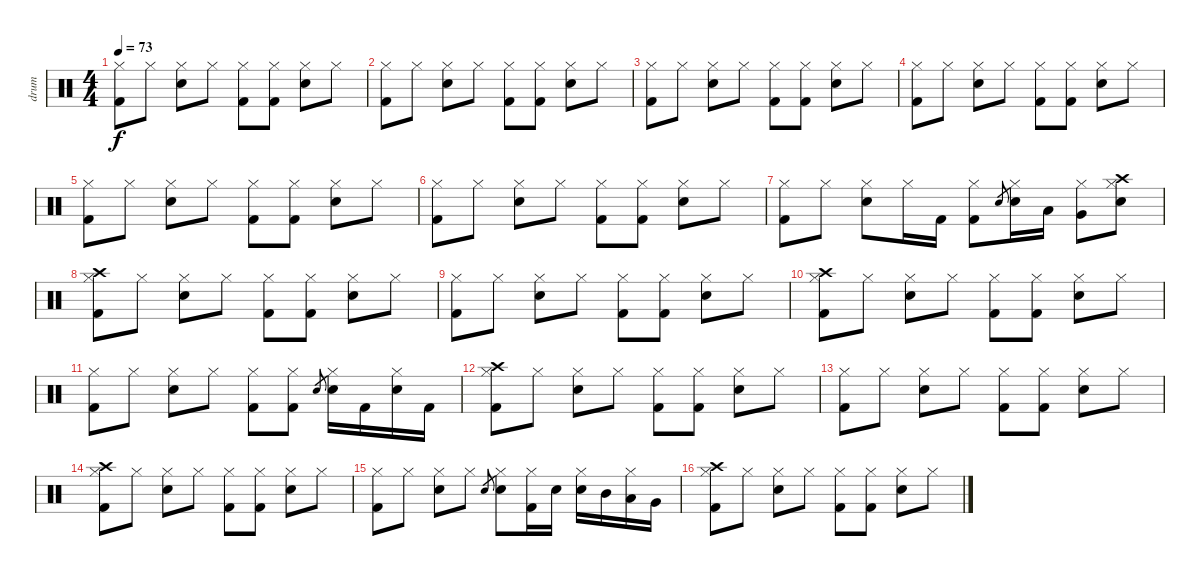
\track ("drum" "drum") {instrument percussion}
\staff {score}
\articulation defaults
\ts (4 4)
\tempo 73
\clef neutral
\ks c
("Hi-Hat (closed)" "Kick (hit) 2").8{dy f} "Hi-Hat (closed)".8 ("Hi-Hat (closed)" "Electric Snare (hit)").8 "Hi-Hat (closed)".8 ("Hi-Hat (closed)" "Kick (hit) 2").8 ("Hi-Hat (closed)" "Kick (hit) 2").8 ("Hi-Hat (closed)" "Electric Snare (hit)").8 "Hi-Hat (closed)".8 |
("Hi-Hat (closed)" "Kick (hit) 2").8 "Hi-Hat (closed)".8 ("Hi-Hat (closed)" "Electric Snare (hit)").8 "Hi-Hat (closed)".8 ("Hi-Hat (closed)" "Kick (hit) 2").8 ("Hi-Hat (closed)" "Kick (hit) 2").8 ("Hi-Hat (closed)" "Electric Snare (hit)").8 "Hi-Hat (closed)".8 |
("Hi-Hat (closed)" "Kick (hit) 2").8 "Hi-Hat (closed)".8 ("Hi-Hat (closed)" "Electric Snare (hit)").8 "Hi-Hat (closed)".8 ("Hi-Hat (closed)" "Kick (hit) 2").8 ("Hi-Hat (closed)" "Kick (hit) 2").8 ("Hi-Hat (closed)" "Electric Snare (hit)").8 "Hi-Hat (closed)".8 |
("Hi-Hat (closed)" "Kick (hit) 2").8 "Hi-Hat (closed)".8 ("Hi-Hat (closed)" "Electric Snare (hit)").8 "Hi-Hat (closed)".8 ("Hi-Hat (closed)" "Kick (hit) 2").8 ("Hi-Hat (closed)" "Kick (hit) 2").8 ("Hi-Hat (closed)" "Electric Snare (hit)").8 "Hi-Hat (closed)".8 |
("Hi-Hat (closed)" "Kick (hit) 2").8 "Hi-Hat (closed)".8 ("Hi-Hat (closed)" "Electric Snare (hit)").8 "Hi-Hat (closed)".8 ("Hi-Hat (closed)" "Kick (hit) 2").8 ("Hi-Hat (closed)" "Kick (hit) 2").8 ("Hi-Hat (closed)" "Electric Snare (hit)").8 "Hi-Hat (closed)".8 |
("Hi-Hat (closed)" "Kick (hit) 2").8 "Hi-Hat (closed)".8 ("Hi-Hat (closed)" "Electric Snare (hit)").8 "Hi-Hat (closed)".8 ("Hi-Hat (closed)" "Kick (hit) 2").8 ("Hi-Hat (closed)" "Kick (hit) 2").8 ("Hi-Hat (closed)" "Electric Snare (hit)").8 "Hi-Hat (closed)".8 |
("Hi-Hat (closed)" "Kick (hit) 2").8 "Hi-Hat (closed)".8 ("Hi-Hat (closed)" "Electric Snare (hit)").8 "Hi-Hat (closed)".16 "Kick (hit) 2".16 ("Hi-Hat (closed)" "Kick (hit) 2").8 "Electric Snare (hit)".8{gr} ("Hi-Hat (closed)" "Electric Snare (hit)").16 "Low Tom (hit)".16 ("Hi-Hat (closed)" "Very Low Tom (hit)").8 ("Crash high (hit)" "Hi-Hat (closed)" "Electric Snare (hit)").8 |
("Crash high (hit)" "Hi-Hat (closed)" "Kick (hit) 2").8 "Hi-Hat (closed)".8 ("Hi-Hat (closed)" "Electric Snare (hit)").8 "Hi-Hat (closed)".8 ("Hi-Hat (closed)" "Kick (hit) 2").8 ("Hi-Hat (closed)" "Kick (hit) 2").8 ("Hi-Hat (closed)" "Electric Snare (hit)").8 "Hi-Hat (closed)".8 |
("Hi-Hat (closed)" "Kick (hit) 2").8 "Hi-Hat (closed)".8 ("Hi-Hat (closed)" "Electric Snare (hit)").8 "Hi-Hat (closed)".8 ("Hi-Hat (closed)" "Kick (hit) 2").8 ("Hi-Hat (closed)" "Kick (hit) 2").8 ("Hi-Hat (closed)" "Electric Snare (hit)").8 "Hi-Hat (closed)".8 |
("Crash high (hit)" "Hi-Hat (closed)" "Kick (hit) 2").8 "Hi-Hat (closed)".8 ("Hi-Hat (closed)" "Electric Snare (hit)").8 "Hi-Hat (closed)".8 ("Hi-Hat (closed)" "Kick (hit) 2").8 ("Hi-Hat (closed)" "Kick (hit) 2").8 ("Hi-Hat (closed)" "Electric Snare (hit)").8 "Hi-Hat (closed)".8 |
("Hi-Hat (closed)" "Kick (hit) 2").8 "Hi-Hat (closed)".8 ("Hi-Hat (closed)" "Electric Snare (hit)").8 "Hi-Hat (closed)".8 ("Hi-Hat (closed)" "Kick (hit) 2").8 ("Hi-Hat (closed)" "Kick (hit) 2").8 "Electric Snare (hit)".8{gr} ("Hi-Hat (closed)" "Electric Snare (hit)").16 "Kick (hit) 2".16 ("Hi-Hat (closed)" "Electric Snare (hit)").16 "Kick (hit) 2".16 |
("Crash high (hit)" "Hi-Hat (closed)" "Kick (hit) 2").8 "Hi-Hat (closed)".8 ("Hi-Hat (closed)" "Electric Snare (hit)").8 "Hi-Hat (closed)".8 ("Hi-Hat (closed)" "Kick (hit) 2").8 ("Hi-Hat (closed)" "Kick (hit) 2").8 ("Hi-Hat (closed)" "Electric Snare (hit)").8 "Hi-Hat (closed)".8 |
("Hi-Hat (closed)" "Kick (hit) 2").8 "Hi-Hat (closed)".8 ("Hi-Hat (closed)" "Electric Snare (hit)").8 "Hi-Hat (closed)".8 ("Hi-Hat (closed)" "Kick (hit) 2").8 ("Hi-Hat (closed)" "Kick (hit) 2").8 ("Hi-Hat (closed)" "Electric Snare (hit)").8 "Hi-Hat (closed)".8 |
("Crash high (hit)" "Hi-Hat (closed)" "Kick (hit) 2").8 "Hi-Hat (closed)".8 ("Hi-Hat (closed)" "Electric Snare (hit)").8 "Hi-Hat (closed)".8 ("Hi-Hat (closed)" "Kick (hit) 2").8 ("Hi-Hat (closed)" "Kick (hit) 2").8 ("Hi-Hat (closed)" "Electric Snare (hit)").8 "Hi-Hat (closed)".8 |
("Hi-Hat (closed)" "Kick (hit) 2").8 "Hi-Hat (closed)".8 ("Hi-Hat (closed)" "Electric Snare (hit)").8 "Hi-Hat (closed)".8 "Electric Snare (hit)".8{gr} ("Hi-Hat (closed)" "Electric Snare (hit)").8 ("Hi-Hat (closed)" "Kick (hit) 2").16 "Electric Snare (hit)".16 ("Hi-Hat (closed)" "Electric Snare (hit)").16 "Mid Tom (hit)".16 ("Hi-Hat (closed)" "Low Tom (hit)").16 "Very Low Tom (hit)".16 |
("Crash high (hit)" "Hi-Hat (closed)" "Kick (hit) 2").8 "Hi-Hat (closed)".8 ("Hi-Hat (closed)" "Electric Snare (hit)").8 "Hi-Hat (closed)".8 ("Hi-Hat (closed)" "Kick (hit) 2").8 ("Hi-Hat (closed)" "Kick (hit) 2").8 ("Hi-Hat (closed)" "Electric Snare (hit)").8 "Hi-Hat (closed)".8
